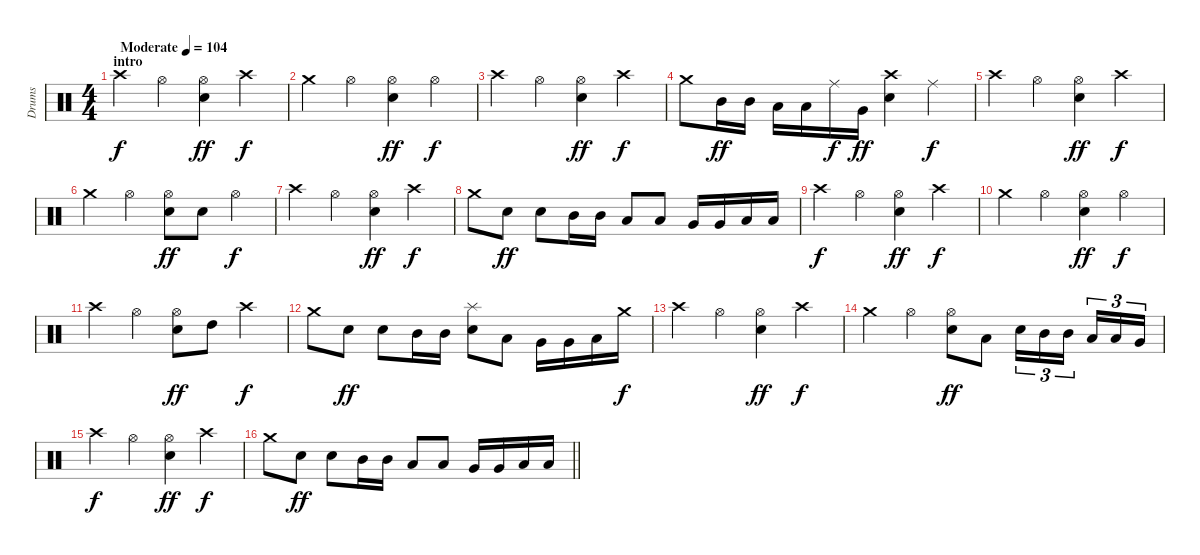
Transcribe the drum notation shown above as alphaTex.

\track ("Drums" "Drums") {instrument percussion}
\staff {score}
\articulation defaults
\ts (4 4)
\section ("" "intro")
\tempo (104 "Moderate")
\clef neutral
\ks c "Crash high (hit)".4{dy f} "Hi-Hat (open)".4
("Hi-Hat (open)" "Snare (hit) 2").4{dy ff} "Crash high (hit)".4{dy f} |
"Crash medium (hit)".4 "Hi-Hat (open)".4 ("Hi-Hat (open)" "Snare (hit) 2").4{dy ff} "Hi-Hat (open)".4{dy f} |
"Crash high (hit)".4 "Hi-Hat (open)".4 ("Hi-Hat (open)" "Snare (hit) 2").4{dy ff} "Crash high (hit)".4{dy f} |
"Crash medium (hit)".8 "Mid Tom (hit)".16{dy ff} "Mid Tom (hit)".16 "Low Tom (hit)".16 "Low Tom (hit)".16 "Ride (middle)".16{dy f} "Very Low Tom (hit)".16{dy ff} ("Crash high (hit)" "Snare (hit) 2").4 "Ride (middle)".4{dy f} |
"Crash high (hit)".4 "Hi-Hat (open)".4 ("Hi-Hat (open)" "Snare (hit) 2").4{dy ff} "Crash high (hit)".4{dy f} |
"Crash medium (hit)".4 "Hi-Hat (open)".4 ("Hi-Hat (open)" "Snare (hit) 2").8{dy ff} "Snare (hit) 2".8 "Hi-Hat (open)".4{dy f} |
"Crash high (hit)".4 "Hi-Hat (open)".4 ("Hi-Hat (open)" "Snare (hit) 2").4{dy ff} "Crash high (hit)".4{dy f} |
"Crash medium (hit)".8 "Snare (hit) 2".8{dy ff} "Snare (hit) 2".8 "Mid Tom (hit)".16 "Mid Tom (hit)".16 "Low Tom (hit)".8 "Low Tom (hit)".8 "Very Low Tom (hit)".16 "Very Low Tom (hit)".16 "Low Floor Tom (hit)".16 "Low Floor Tom (hit)".16 |
"Crash high (hit)".4{dy f} "Hi-Hat (open)".4 ("Hi-Hat (open)" "Snare (hit) 2").4{dy ff} "Crash high (hit)".4{dy f} |
"Crash medium (hit)".4 "Hi-Hat (open)".4 ("Hi-Hat (open)" "Snare (hit) 2").4{dy ff} "Hi-Hat (open)".4{dy f} |
"Crash high (hit)".4 "Hi-Hat (open)".4 ("Hi-Hat (open)" "Snare (hit) 2").8{dy ff} "High Tom (hit)".8 "Crash high (hit)".4{dy f} |
"Crash medium (hit)".8 "Snare (hit) 2".8{dy ff} "Snare (hit) 2".8 "Mid Tom (hit)".16 "Mid Tom (hit)".16 ("Splash (hit)" "Snare (hit) 2").8 "Low Tom (hit)".8 "Very Low Tom (hit)".16 "Very Low Tom (hit)".16 "Low Floor Tom (hit)".16 "Crash medium (hit)".16{dy f} |
"Crash high (hit)".4 "Hi-Hat (open)".4 ("Hi-Hat (open)" "Snare (hit) 2").4{dy ff} "Crash high (hit)".4{dy f} |
"Crash medium (hit)".4 "Hi-Hat (open)".4 ("Hi-Hat (open)" "Snare (hit) 2").8{dy ff} "Low Tom (hit)".8 "Snare (hit) 2".16{tu (3 2)} "Mid Tom (hit)".16{tu (3 2)} "Mid Tom (hit)".16{tu (3 2) beam splitsecondary} "Low Tom (hit)".16{tu (3 2)} "Low Tom (hit)".16{tu (3 2)} "Very Low Tom (hit)".16{tu (3 2)} |
"Crash high (hit)".4{dy f} "Hi-Hat (open)".4 ("Hi-Hat (open)" "Snare (hit) 2").4{dy ff} "Crash high (hit)".4{dy f} |
\barLineRight lightlight "Crash medium (hit)".8 "Snare (hit) 2".8{dy ff} "Snare (hit) 2".8 "Mid Tom (hit)".16 "Mid Tom (hit)".16 "Low Tom (hit)".8 "Low Tom (hit)".8 "Very Low Tom (hit)".16 "Very Low Tom (hit)".16 "Low Floor Tom (hit)".16 "Low Floor Tom (hit)".16
